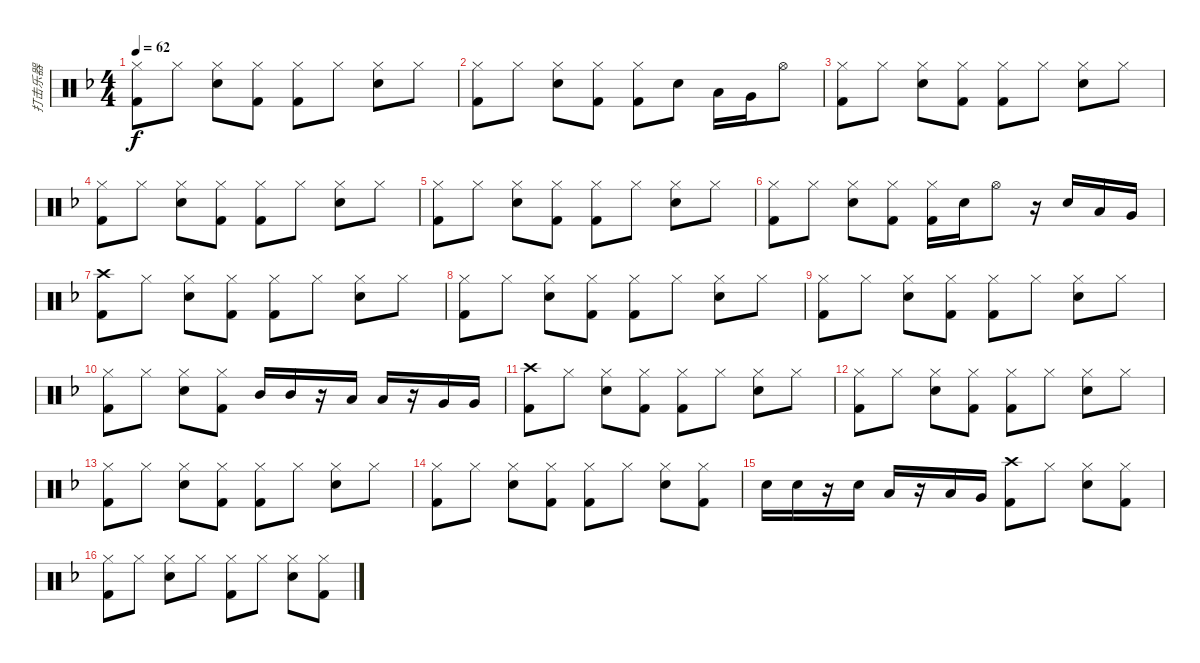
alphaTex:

\track ("打击乐器" "打击乐器") {instrument percussion}
\staff {score}
\articulation defaults
\ts (4 4)
\tempo 62
\clef neutral
\ks f
("Hi-Hat (closed)" "Kick (hit) 2").8{dy f} "Hi-Hat (closed)".8 ("Hi-Hat (closed)" "Snare (hit) 2").8 ("Hi-Hat (closed)" "Kick (hit) 2").8 ("Hi-Hat (closed)" "Kick (hit) 2").8 "Hi-Hat (closed)".8 ("Hi-Hat (closed)" "Snare (hit) 2").8 "Hi-Hat (closed)".8 |
("Hi-Hat (closed)" "Kick (hit) 2").8 "Hi-Hat (closed)".8 ("Hi-Hat (closed)" "Snare (hit) 2").8 ("Hi-Hat (closed)" "Kick (hit) 2").8 ("Hi-Hat (closed)" "Kick (hit) 2").8 "Snare (hit) 2".8 "Low Tom (hit)".16 "Very Low Tom (hit)".16 "Hi-Hat (open)".8 |
("Hi-Hat (closed)" "Kick (hit) 2").8 "Hi-Hat (closed)".8 ("Hi-Hat (closed)" "Snare (hit) 2").8 ("Hi-Hat (closed)" "Kick (hit) 2").8 ("Hi-Hat (closed)" "Kick (hit) 2").8 "Hi-Hat (closed)".8 ("Hi-Hat (closed)" "Snare (hit) 2").8 "Hi-Hat (closed)".8 |
("Hi-Hat (closed)" "Kick (hit) 2").8 "Hi-Hat (closed)".8 ("Hi-Hat (closed)" "Snare (hit) 2").8 ("Hi-Hat (closed)" "Kick (hit) 2").8 ("Hi-Hat (closed)" "Kick (hit) 2").8 "Hi-Hat (closed)".8 ("Hi-Hat (closed)" "Snare (hit) 2").8 "Hi-Hat (closed)".8 |
("Hi-Hat (closed)" "Kick (hit) 2").8 "Hi-Hat (closed)".8 ("Hi-Hat (closed)" "Snare (hit) 2").8 ("Hi-Hat (closed)" "Kick (hit) 2").8 ("Hi-Hat (closed)" "Kick (hit) 2").8 "Hi-Hat (closed)".8 ("Hi-Hat (closed)" "Snare (hit) 2").8 "Hi-Hat (closed)".8 |
("Hi-Hat (closed)" "Kick (hit) 2").8 "Hi-Hat (closed)".8 ("Hi-Hat (closed)" "Snare (hit) 2").8 ("Hi-Hat (closed)" "Kick (hit) 2").8 ("Hi-Hat (closed)" "Kick (hit) 2").16 "Snare (hit) 2".16 "Hi-Hat (open)".8 r.16 "Snare (hit) 2".16 "Low Tom (hit)".16 "Very Low Tom (hit)".16 |
("Crash high (hit)" "Kick (hit) 2").8 "Hi-Hat (closed)".8 ("Hi-Hat (closed)" "Snare (hit) 2").8 ("Hi-Hat (closed)" "Kick (hit) 2").8 ("Hi-Hat (closed)" "Kick (hit) 2").8 "Hi-Hat (closed)".8 ("Hi-Hat (closed)" "Snare (hit) 2").8 "Hi-Hat (closed)".8 |
("Hi-Hat (closed)" "Kick (hit) 2").8 "Hi-Hat (closed)".8 ("Hi-Hat (closed)" "Snare (hit) 2").8 ("Hi-Hat (closed)" "Kick (hit) 2").8 ("Hi-Hat (closed)" "Kick (hit) 2").8 "Hi-Hat (closed)".8 ("Hi-Hat (closed)" "Snare (hit) 2").8 "Hi-Hat (closed)".8 |
("Hi-Hat (closed)" "Kick (hit) 2").8 "Hi-Hat (closed)".8 ("Hi-Hat (closed)" "Snare (hit) 2").8 ("Hi-Hat (closed)" "Kick (hit) 2").8 ("Hi-Hat (closed)" "Kick (hit) 2").8 "Hi-Hat (closed)".8 ("Hi-Hat (closed)" "Snare (hit) 2").8 "Hi-Hat (closed)".8 |
("Hi-Hat (closed)" "Kick (hit) 2").8 "Hi-Hat (closed)".8 ("Hi-Hat (closed)" "Snare (hit) 2").8 ("Hi-Hat (closed)" "Kick (hit) 2").8 "Mid Tom (hit)".16 "Mid Tom (hit)".16 r.16 "Low Tom (hit)".16 "Low Tom (hit)".16 r.16 "Very Low Tom (hit)".16 "Very Low Tom (hit)".16 |
("Crash high (hit)" "Kick (hit) 2").8 "Hi-Hat (closed)".8 ("Hi-Hat (closed)" "Snare (hit) 2").8 ("Hi-Hat (closed)" "Kick (hit) 2").8 ("Hi-Hat (closed)" "Kick (hit) 2").8 "Hi-Hat (closed)".8 ("Hi-Hat (closed)" "Snare (hit) 2").8 "Hi-Hat (closed)".8 |
("Hi-Hat (closed)" "Kick (hit) 2").8 "Hi-Hat (closed)".8 ("Hi-Hat (closed)" "Snare (hit) 2").8 ("Hi-Hat (closed)" "Kick (hit) 2").8 ("Hi-Hat (closed)" "Kick (hit) 2").8 "Hi-Hat (closed)".8 ("Hi-Hat (closed)" "Snare (hit) 2").8 "Hi-Hat (closed)".8 |
("Hi-Hat (closed)" "Kick (hit) 2").8 "Hi-Hat (closed)".8 ("Hi-Hat (closed)" "Snare (hit) 2").8 ("Hi-Hat (closed)" "Kick (hit) 2").8 ("Hi-Hat (closed)" "Kick (hit) 2").8 "Hi-Hat (closed)".8 ("Hi-Hat (closed)" "Snare (hit) 2").8 "Hi-Hat (closed)".8 |
("Hi-Hat (closed)" "Kick (hit) 2").8 "Hi-Hat (closed)".8 ("Hi-Hat (closed)" "Snare (hit) 2").8 ("Hi-Hat (closed)" "Kick (hit) 2").8 ("Hi-Hat (closed)" "Kick (hit) 2").8 "Hi-Hat (closed)".8 ("Hi-Hat (closed)" "Snare (hit) 2").8 ("Hi-Hat (closed)" "Kick (hit) 2").8 |
"Snare (hit) 2".16 "Snare (hit) 2".16 r.16 "Snare (hit) 2".16 "Low Tom (hit)".16 r.16 "Low Tom (hit)".16 "Very Low Tom (hit)".16 ("Crash high (hit)" "Kick (hit) 2").8 "Hi-Hat (closed)".8 ("Hi-Hat (closed)" "Snare (hit) 2").8 ("Hi-Hat (closed)" "Kick (hit) 2").8 |
("Hi-Hat (closed)" "Kick (hit) 2").8 "Hi-Hat (closed)".8 ("Hi-Hat (closed)" "Snare (hit) 2").8 "Hi-Hat (closed)".8 ("Hi-Hat (closed)" "Kick (hit) 2").8 "Hi-Hat (closed)".8 ("Hi-Hat (closed)" "Snare (hit) 2").8 ("Hi-Hat (closed)" "Kick (hit) 2").8
